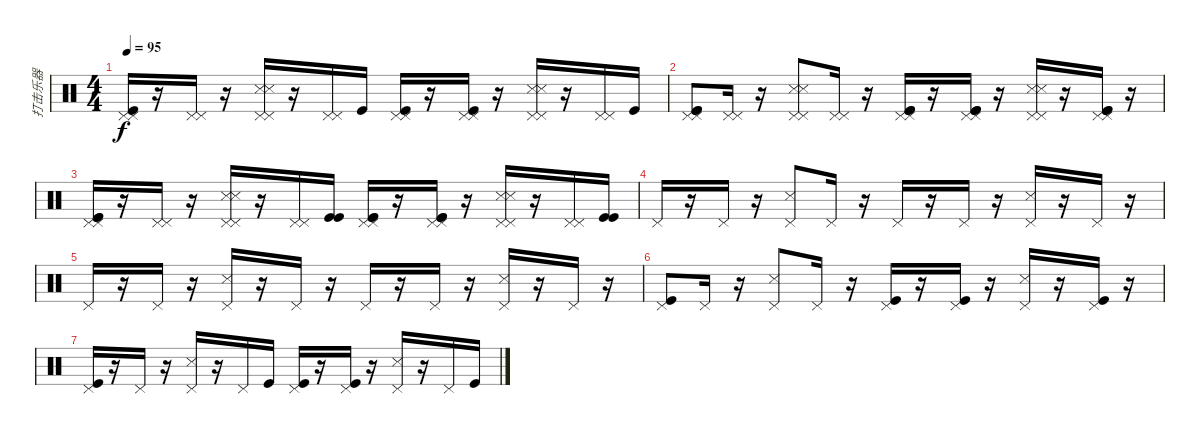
\track ("打击乐器" "打击乐器") {instrument percussion}
\staff {score}
\articulation defaults
\ts (4 4)
\tempo 95
\clef neutral
\ks c
("Pedal Hi-Hat (hit)" "Kick (hit)" "Pedal Hi-Hat (hit)").16{dy f} r.16 ("Pedal Hi-Hat (hit)" "Pedal Hi-Hat (hit)").16 r.16 ("Pedal Hi-Hat (hit)" "Snare (side stick) 3" "Pedal Hi-Hat (hit)" "Snare (side stick) 3").16 r.16 ("Pedal Hi-Hat (hit)" "Pedal Hi-Hat (hit)").16 "Kick (hit)".16 ("Pedal Hi-Hat (hit)" "Kick (hit)" "Pedal Hi-Hat (hit)").16 r.16 ("Pedal Hi-Hat (hit)" "Kick (hit)" "Pedal Hi-Hat (hit)").16 r.16 ("Pedal Hi-Hat (hit)" "Snare (side stick) 3" "Pedal Hi-Hat (hit)" "Snare (side stick) 3").16 r.16 ("Pedal Hi-Hat (hit)" "Pedal Hi-Hat (hit)").16 "Kick (hit)".16 |
("Pedal Hi-Hat (hit)" "Kick (hit)" "Pedal Hi-Hat (hit)" "Kick (hit)").8 ("Pedal Hi-Hat (hit)" "Pedal Hi-Hat (hit)").16 r.16 ("Pedal Hi-Hat (hit)" "Snare (side stick) 3" "Pedal Hi-Hat (hit)" "Snare (side stick) 3").8 ("Pedal Hi-Hat (hit)" "Pedal Hi-Hat (hit)").16 r.16 ("Kick (hit)" "Pedal Hi-Hat (hit)" "Kick (hit)" "Pedal Hi-Hat (hit)").16 r.16 ("Kick (hit)" "Pedal Hi-Hat (hit)" "Kick (hit)" "Pedal Hi-Hat (hit)").16 r.16 ("Snare (side stick) 3" "Pedal Hi-Hat (hit)" "Snare (side stick) 3" "Pedal Hi-Hat (hit)").16 r.16 ("Kick (hit)" "Pedal Hi-Hat (hit)" "Kick (hit)" "Pedal Hi-Hat (hit)").16 r.16 |
("Pedal Hi-Hat (hit)" "Kick (hit)" "Pedal Hi-Hat (hit)" "Kick (hit)").16 r.16 ("Pedal Hi-Hat (hit)" "Pedal Hi-Hat (hit)").16 r.16 ("Pedal Hi-Hat (hit)" "Snare (side stick) 3" "Pedal Hi-Hat (hit)" "Snare (side stick) 3").16 r.16 ("Pedal Hi-Hat (hit)" "Pedal Hi-Hat (hit)").16 ("Kick (hit)" "Kick (hit)").16 ("Pedal Hi-Hat (hit)" "Kick (hit)" "Pedal Hi-Hat (hit)" "Kick (hit)").16 r.16 ("Pedal Hi-Hat (hit)" "Kick (hit)" "Pedal Hi-Hat (hit)" "Kick (hit)").16 r.16 ("Pedal Hi-Hat (hit)" "Snare (side stick) 3" "Pedal Hi-Hat (hit)" "Snare (side stick) 3").16 r.16 ("Pedal Hi-Hat (hit)" "Pedal Hi-Hat (hit)").16 ("Kick (hit)" "Kick (hit)").16 |
"Pedal Hi-Hat (hit)".16 r.16 "Pedal Hi-Hat (hit)".16 r.16 ("Pedal Hi-Hat (hit)" "Snare (side stick) 3").8 "Pedal Hi-Hat (hit)".16 r.16 "Pedal Hi-Hat (hit)".16 r.16 "Pedal Hi-Hat (hit)".16 r.16 ("Snare (side stick) 3" "Pedal Hi-Hat (hit)").16 r.16 "Pedal Hi-Hat (hit)".16 r.16 |
"Pedal Hi-Hat (hit)".16 r.16 "Pedal Hi-Hat (hit)".16 r.16 ("Pedal Hi-Hat (hit)" "Snare (side stick) 3").16 r.16 "Pedal Hi-Hat (hit)".16 r.16 "Pedal Hi-Hat (hit)".16 r.16 "Pedal Hi-Hat (hit)".16 r.16 ("Pedal Hi-Hat (hit)" "Snare (side stick) 3").16 r.16 "Pedal Hi-Hat (hit)".16 r.16 |
("Pedal Hi-Hat (hit)" "Kick (hit)").8 "Pedal Hi-Hat (hit)".16 r.16 ("Pedal Hi-Hat (hit)" "Snare (side stick) 3").8 "Pedal Hi-Hat (hit)".16 r.16 ("Kick (hit)" "Pedal Hi-Hat (hit)").16 r.16 ("Kick (hit)" "Pedal Hi-Hat (hit)").16 r.16 ("Snare (side stick) 3" "Pedal Hi-Hat (hit)").16 r.16 ("Kick (hit)" "Pedal Hi-Hat (hit)").16 r.16 |
("Pedal Hi-Hat (hit)" "Kick (hit)").16 r.16 "Pedal Hi-Hat (hit)".16 r.16 ("Pedal Hi-Hat (hit)" "Snare (side stick) 3").16 r.16 "Pedal Hi-Hat (hit)".16 "Kick (hit)".16 ("Pedal Hi-Hat (hit)" "Kick (hit)").16 r.16 ("Pedal Hi-Hat (hit)" "Kick (hit)").16 r.16 ("Pedal Hi-Hat (hit)" "Snare (side stick) 3").16 r.16 "Pedal Hi-Hat (hit)".16 "Kick (hit)".16
